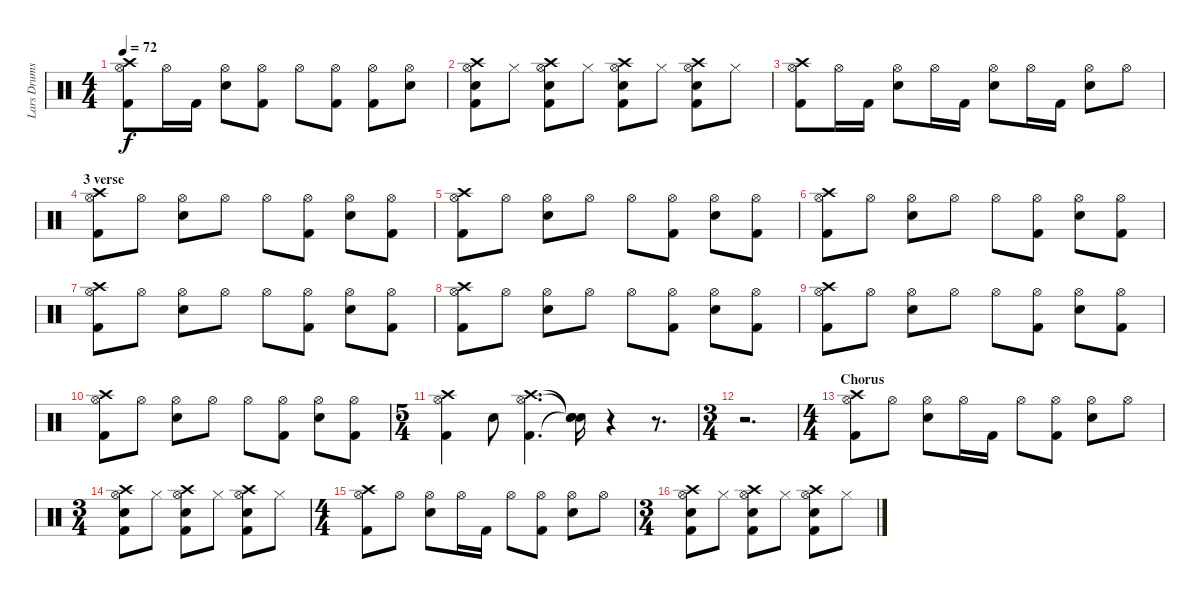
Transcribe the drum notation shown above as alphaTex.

\track ("Lars Drums" "Lars Drums") {instrument percussion}
\staff {score}
\articulation defaults
\ts (4 4)
\tempo 72
\clef neutral
\ks c
("Kick (hit) 2" "Hi-Hat (open)" "Crash high (hit)").8{dy f} "Hi-Hat (open)".16 "Kick (hit) 2".16 ("Snare (hit) 2" "Hi-Hat (open)").8 ("Kick (hit) 2" "Hi-Hat (open)").8 "Hi-Hat (open)".8 ("Kick (hit) 2" "Hi-Hat (open)").8 ("Kick (hit) 2" "Hi-Hat (open)").8 ("Snare (hit) 2" "Hi-Hat (open)").8 |
("Kick (hit) 2" "Snare (hit) 2" "Hi-Hat (open)" "Crash high (hit)").8 "Hi-Hat (closed)".8 ("Kick (hit) 2" "Snare (hit) 2" "Hi-Hat (open)" "Crash high (hit)").8 "Hi-Hat (closed)".8 ("Kick (hit) 2" "Snare (hit) 2" "Hi-Hat (open)" "Crash high (hit)").8 "Hi-Hat (closed)".8 ("Kick (hit) 2" "Snare (hit) 2" "Hi-Hat (open)" "Crash high (hit)").8 "Hi-Hat (closed)".8 |
("Kick (hit) 2" "Hi-Hat (open)" "Crash high (hit)").8 "Hi-Hat (open)".16 "Kick (hit) 2".16 ("Snare (hit) 2" "Hi-Hat (open)").8 "Hi-Hat (open)".16 "Kick (hit) 2".16 ("Snare (hit) 2" "Hi-Hat (open)").8 "Hi-Hat (open)".16 "Kick (hit) 2".16 ("Snare (hit) 2" "Hi-Hat (open)").8 "Hi-Hat (open)".8 |
\section ("" "3 verse")
("Kick (hit) 2" "Hi-Hat (open)" "Crash high (hit)").8 "Hi-Hat (open)".8 ("Snare (hit) 2" "Hi-Hat (open)").8 "Hi-Hat (open)".8 "Hi-Hat (open)".8 ("Kick (hit) 2" "Hi-Hat (open)").8 ("Snare (hit) 2" "Hi-Hat (open)").8 ("Kick (hit) 2" "Hi-Hat (open)").8 |
("Kick (hit) 2" "Hi-Hat (open)" "Crash high (hit)").8 "Hi-Hat (open)".8 ("Snare (hit) 2" "Hi-Hat (open)").8 "Hi-Hat (open)".8 "Hi-Hat (open)".8 ("Kick (hit) 2" "Hi-Hat (open)").8 ("Snare (hit) 2" "Hi-Hat (open)").8 ("Kick (hit) 2" "Hi-Hat (open)").8 |
("Kick (hit) 2" "Hi-Hat (open)" "Crash high (hit)").8 "Hi-Hat (open)".8 ("Snare (hit) 2" "Hi-Hat (open)").8 "Hi-Hat (open)".8 "Hi-Hat (open)".8 ("Kick (hit) 2" "Hi-Hat (open)").8 ("Snare (hit) 2" "Hi-Hat (open)").8 ("Kick (hit) 2" "Hi-Hat (open)").8 |
("Kick (hit) 2" "Hi-Hat (open)" "Crash high (hit)").8 "Hi-Hat (open)".8 ("Snare (hit) 2" "Hi-Hat (open)").8 "Hi-Hat (open)".8 "Hi-Hat (open)".8 ("Kick (hit) 2" "Hi-Hat (open)").8 ("Snare (hit) 2" "Hi-Hat (open)").8 ("Kick (hit) 2" "Hi-Hat (open)").8 |
("Kick (hit) 2" "Hi-Hat (open)" "Crash high (hit)").8 "Hi-Hat (open)".8 ("Snare (hit) 2" "Hi-Hat (open)").8 "Hi-Hat (open)".8 "Hi-Hat (open)".8 ("Kick (hit) 2" "Hi-Hat (open)").8 ("Snare (hit) 2" "Hi-Hat (open)").8 ("Kick (hit) 2" "Hi-Hat (open)").8 |
("Kick (hit) 2" "Hi-Hat (open)" "Crash high (hit)").8 "Hi-Hat (open)".8 ("Snare (hit) 2" "Hi-Hat (open)").8 "Hi-Hat (open)".8 "Hi-Hat (open)".8 ("Kick (hit) 2" "Hi-Hat (open)").8 ("Snare (hit) 2" "Hi-Hat (open)").8 ("Kick (hit) 2" "Hi-Hat (open)").8 |
("Kick (hit) 2" "Hi-Hat (open)" "Crash high (hit)").8 "Hi-Hat (open)".8 ("Snare (hit) 2" "Hi-Hat (open)").8 "Hi-Hat (open)".8 "Hi-Hat (open)".8 ("Kick (hit) 2" "Hi-Hat (open)").8 ("Snare (hit) 2" "Hi-Hat (open)").8 ("Kick (hit) 2" "Hi-Hat (open)").8 |
\ts (5 4)
("Kick (hit) 2" "Hi-Hat (open)" "Crash high (hit)").4 "Snare (hit) 2".8 ("Kick (hit) 2" "Hi-Hat (open)" "Crash high (hit)").4{d} ("Snare (hit)"{t} "Snare (hit)"{t} "Snare (hit)"{t}).16 r.4 r.8{d} |
\ts (3 4)
r.2{d} |
\ts (4 4)
\section ("" "Chorus")
("Kick (hit) 2" "Hi-Hat (open)" "Crash high (hit)").8 "Hi-Hat (open)".8 ("Snare (hit) 2" "Hi-Hat (open)").8 "Hi-Hat (open)".16 "Kick (hit) 2".16 "Hi-Hat (open)".8 ("Kick (hit) 2" "Hi-Hat (open)").8 ("Snare (hit) 2" "Hi-Hat (open)").8 "Hi-Hat (open)".8 |
\ts (3 4)
("Kick (hit) 2" "Snare (hit) 2" "Hi-Hat (open)" "Crash high (hit)").8 "Hi-Hat (closed)".8 ("Kick (hit) 2" "Snare (hit) 2" "Hi-Hat (open)" "Crash high (hit)").8 "Hi-Hat (closed)".8 ("Kick (hit) 2" "Snare (hit) 2" "Hi-Hat (open)" "Crash high (hit)").8 "Hi-Hat (closed)".8 |
\ts (4 4)
("Kick (hit) 2" "Hi-Hat (open)" "Crash high (hit)").8 "Hi-Hat (open)".8 ("Snare (hit) 2" "Hi-Hat (open)").8 "Hi-Hat (open)".16 "Kick (hit) 2".16 "Hi-Hat (open)".8 ("Kick (hit) 2" "Hi-Hat (open)").8 ("Snare (hit) 2" "Hi-Hat (open)").8 "Hi-Hat (open)".8 |
\ts (3 4)
("Kick (hit) 2" "Snare (hit) 2" "Hi-Hat (open)" "Crash high (hit)").8 "Hi-Hat (closed)".8 ("Kick (hit) 2" "Snare (hit) 2" "Hi-Hat (open)" "Crash high (hit)").8 "Hi-Hat (closed)".8 ("Kick (hit) 2" "Snare (hit) 2" "Hi-Hat (open)" "Crash high (hit)").8 "Hi-Hat (closed)".8
